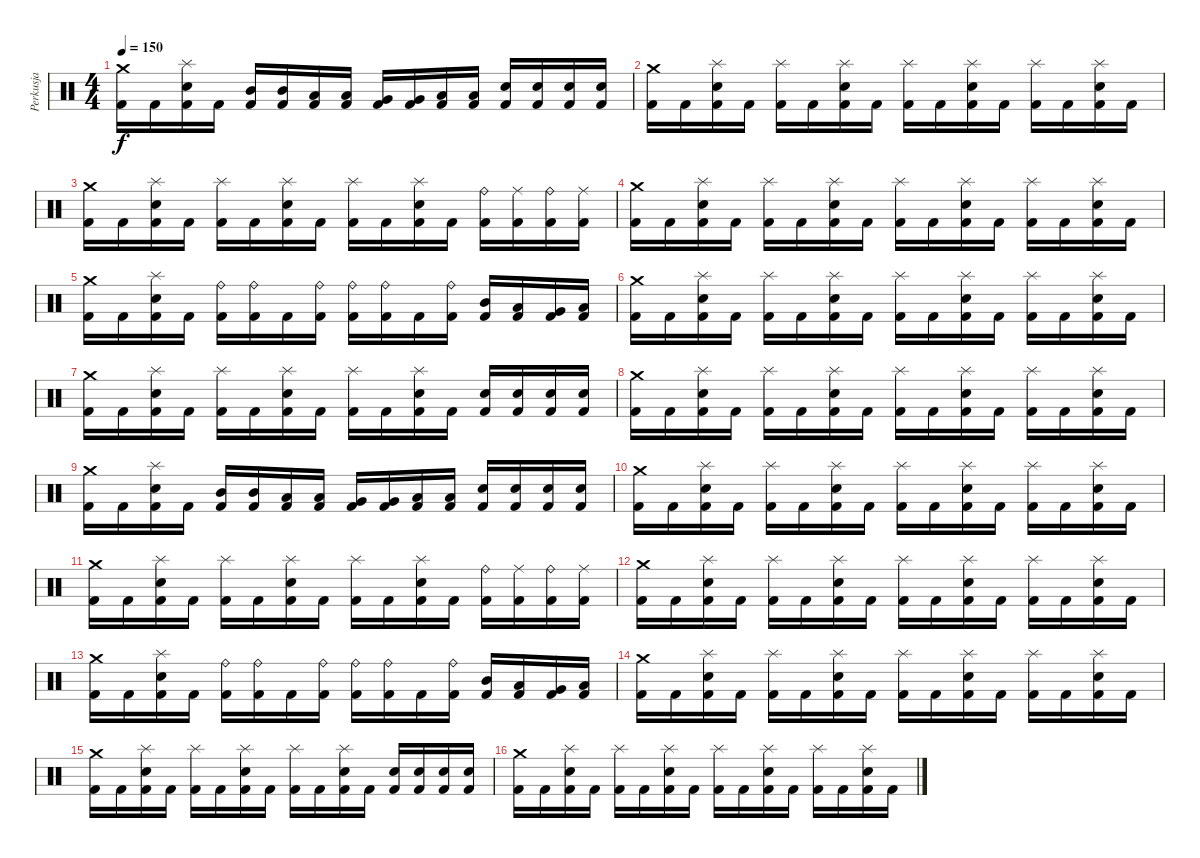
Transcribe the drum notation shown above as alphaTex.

\track ("Perkusja" "Perkusja") {instrument percussion}
\staff {score}
\articulation defaults
\ts (4 4)
\tempo 150
\clef neutral
\ks c
("Crash medium (hit)" "Kick (hit) 2").16{dy f} "Kick (hit) 2".16 ("Splash (hit)" "Electric Snare (hit)" "Kick (hit) 2").16 "Kick (hit) 2".16 ("Mid Tom (hit)" "Kick (hit) 2").16 ("Mid Tom (hit)" "Kick (hit) 2").16 ("Low Tom (hit)" "Kick (hit) 2").16 ("Low Tom (hit)" "Kick (hit) 2").16 ("Very Low Tom (hit)" "Kick (hit) 2").16 ("Very Low Tom (hit)" "Kick (hit) 2").16 ("Low Floor Tom (hit)" "Kick (hit) 2").16 ("Low Floor Tom (hit)" "Kick (hit) 2").16 ("Electric Snare (hit)" "Kick (hit) 2").16 ("Electric Snare (hit)" "Kick (hit) 2").16 ("Electric Snare (hit)" "Kick (hit) 2").16 ("Electric Snare (hit)" "Kick (hit) 2").16 |
("Crash medium (hit)" "Kick (hit) 2").16 "Kick (hit) 2".16 ("Splash (hit)" "Electric Snare (hit)" "Kick (hit) 2").16 "Kick (hit) 2".16 ("Splash (hit)" "Kick (hit) 2").16 "Kick (hit) 2".16 ("Splash (hit)" "Electric Snare (hit)" "Kick (hit) 2").16 "Kick (hit) 2".16 ("Splash (hit)" "Kick (hit) 2").16 "Kick (hit) 2".16 ("Splash (hit)" "Electric Snare (hit)" "Kick (hit) 2").16 "Kick (hit) 2".16 ("Splash (hit)" "Kick (hit) 2").16 "Kick (hit) 2".16 ("Splash (hit)" "Electric Snare (hit)" "Kick (hit) 2").16 "Kick (hit) 2".16 |
("Crash medium (hit)" "Kick (hit) 2").16 "Kick (hit) 2".16 ("Splash (hit)" "Electric Snare (hit)" "Kick (hit) 2").16 "Kick (hit) 2".16 ("Splash (hit)" "Kick (hit) 2").16 "Kick (hit) 2".16 ("Splash (hit)" "Electric Snare (hit)" "Kick (hit) 2").16 "Kick (hit) 2".16 ("Splash (hit)" "Kick (hit) 2").16 "Kick (hit) 2".16 ("Splash (hit)" "Electric Snare (hit)" "Kick (hit) 2").16 "Kick (hit) 2".16 ("Ride (bell)" "Kick (hit) 2").16 ("Ride (middle)" "Kick (hit) 2").16 ("Ride (bell)" "Kick (hit) 2").16 ("Ride (middle)" "Kick (hit) 2").16 |
("Crash medium (hit)" "Kick (hit) 2").16 "Kick (hit) 2".16 ("Splash (hit)" "Electric Snare (hit)" "Kick (hit) 2").16 "Kick (hit) 2".16 ("Splash (hit)" "Kick (hit) 2").16 "Kick (hit) 2".16 ("Splash (hit)" "Electric Snare (hit)" "Kick (hit) 2").16 "Kick (hit) 2".16 ("Splash (hit)" "Kick (hit) 2").16 "Kick (hit) 2".16 ("Splash (hit)" "Electric Snare (hit)" "Kick (hit) 2").16 "Kick (hit) 2".16 ("Splash (hit)" "Kick (hit) 2").16 "Kick (hit) 2".16 ("Splash (hit)" "Electric Snare (hit)" "Kick (hit) 2").16 "Kick (hit) 2".16 |
("Crash medium (hit)" "Kick (hit) 2").16 "Kick (hit) 2".16 ("Splash (hit)" "Electric Snare (hit)" "Kick (hit) 2").16 "Kick (hit) 2".16 ("Ride (bell)" "Kick (hit) 2").16 ("Ride (bell)" "Kick (hit) 2").16 "Kick (hit) 2".16 ("Ride (bell)" "Kick (hit) 2").16 ("Ride (bell)" "Kick (hit) 2").16 ("Ride (bell)" "Kick (hit) 2").16 "Kick (hit) 2".16 ("Ride (bell)" "Kick (hit) 2").16 ("Mid Tom (hit)" "Kick (hit) 2").16 ("Low Tom (hit)" "Kick (hit) 2").16 ("Very Low Tom (hit)" "Kick (hit) 2").16 ("Low Floor Tom (hit)" "Kick (hit) 2").16 |
("Crash medium (hit)" "Kick (hit) 2").16 "Kick (hit) 2".16 ("Splash (hit)" "Electric Snare (hit)" "Kick (hit) 2").16 "Kick (hit) 2".16 ("Splash (hit)" "Kick (hit) 2").16 "Kick (hit) 2".16 ("Splash (hit)" "Electric Snare (hit)" "Kick (hit) 2").16 "Kick (hit) 2".16 ("Splash (hit)" "Kick (hit) 2").16 "Kick (hit) 2".16 ("Splash (hit)" "Electric Snare (hit)" "Kick (hit) 2").16 "Kick (hit) 2".16 ("Splash (hit)" "Kick (hit) 2").16 "Kick (hit) 2".16 ("Splash (hit)" "Electric Snare (hit)" "Kick (hit) 2").16 "Kick (hit) 2".16 |
("Crash medium (hit)" "Kick (hit) 2").16 "Kick (hit) 2".16 ("Splash (hit)" "Electric Snare (hit)" "Kick (hit) 2").16 "Kick (hit) 2".16 ("Splash (hit)" "Kick (hit) 2").16 "Kick (hit) 2".16 ("Splash (hit)" "Electric Snare (hit)" "Kick (hit) 2").16 "Kick (hit) 2".16 ("Splash (hit)" "Kick (hit) 2").16 "Kick (hit) 2".16 ("Splash (hit)" "Electric Snare (hit)" "Kick (hit) 2").16 "Kick (hit) 2".16 ("Electric Snare (hit)" "Kick (hit) 2").16 ("Electric Snare (hit)" "Kick (hit) 2").16 ("Electric Snare (hit)" "Kick (hit) 2").16 ("Electric Snare (hit)" "Kick (hit) 2").16 |
("Crash medium (hit)" "Kick (hit) 2").16 "Kick (hit) 2".16 ("Splash (hit)" "Electric Snare (hit)" "Kick (hit) 2").16 "Kick (hit) 2".16 ("Splash (hit)" "Kick (hit) 2").16 "Kick (hit) 2".16 ("Splash (hit)" "Electric Snare (hit)" "Kick (hit) 2").16 "Kick (hit) 2".16 ("Splash (hit)" "Kick (hit) 2").16 "Kick (hit) 2".16 ("Splash (hit)" "Electric Snare (hit)" "Kick (hit) 2").16 "Kick (hit) 2".16 ("Splash (hit)" "Kick (hit) 2").16 "Kick (hit) 2".16 ("Splash (hit)" "Electric Snare (hit)" "Kick (hit) 2").16 "Kick (hit) 2".16 |
("Crash medium (hit)" "Kick (hit) 2").16 "Kick (hit) 2".16 ("Splash (hit)" "Electric Snare (hit)" "Kick (hit) 2").16 "Kick (hit) 2".16 ("Mid Tom (hit)" "Kick (hit) 2").16 ("Mid Tom (hit)" "Kick (hit) 2").16 ("Low Tom (hit)" "Kick (hit) 2").16 ("Low Tom (hit)" "Kick (hit) 2").16 ("Very Low Tom (hit)" "Kick (hit) 2").16 ("Very Low Tom (hit)" "Kick (hit) 2").16 ("Low Floor Tom (hit)" "Kick (hit) 2").16 ("Low Floor Tom (hit)" "Kick (hit) 2").16 ("Electric Snare (hit)" "Kick (hit) 2").16 ("Electric Snare (hit)" "Kick (hit) 2").16 ("Electric Snare (hit)" "Kick (hit) 2").16 ("Electric Snare (hit)" "Kick (hit) 2").16 |
("Crash medium (hit)" "Kick (hit) 2").16 "Kick (hit) 2".16 ("Splash (hit)" "Electric Snare (hit)" "Kick (hit) 2").16 "Kick (hit) 2".16 ("Splash (hit)" "Kick (hit) 2").16 "Kick (hit) 2".16 ("Splash (hit)" "Electric Snare (hit)" "Kick (hit) 2").16 "Kick (hit) 2".16 ("Splash (hit)" "Kick (hit) 2").16 "Kick (hit) 2".16 ("Splash (hit)" "Electric Snare (hit)" "Kick (hit) 2").16 "Kick (hit) 2".16 ("Splash (hit)" "Kick (hit) 2").16 "Kick (hit) 2".16 ("Splash (hit)" "Electric Snare (hit)" "Kick (hit) 2").16 "Kick (hit) 2".16 |
("Crash medium (hit)" "Kick (hit) 2").16 "Kick (hit) 2".16 ("Splash (hit)" "Electric Snare (hit)" "Kick (hit) 2").16 "Kick (hit) 2".16 ("Splash (hit)" "Kick (hit) 2").16 "Kick (hit) 2".16 ("Splash (hit)" "Electric Snare (hit)" "Kick (hit) 2").16 "Kick (hit) 2".16 ("Splash (hit)" "Kick (hit) 2").16 "Kick (hit) 2".16 ("Splash (hit)" "Electric Snare (hit)" "Kick (hit) 2").16 "Kick (hit) 2".16 ("Ride (bell)" "Kick (hit) 2").16 ("Ride (middle)" "Kick (hit) 2").16 ("Ride (bell)" "Kick (hit) 2").16 ("Ride (middle)" "Kick (hit) 2").16 |
("Crash medium (hit)" "Kick (hit) 2").16 "Kick (hit) 2".16 ("Splash (hit)" "Electric Snare (hit)" "Kick (hit) 2").16 "Kick (hit) 2".16 ("Splash (hit)" "Kick (hit) 2").16 "Kick (hit) 2".16 ("Splash (hit)" "Electric Snare (hit)" "Kick (hit) 2").16 "Kick (hit) 2".16 ("Splash (hit)" "Kick (hit) 2").16 "Kick (hit) 2".16 ("Splash (hit)" "Electric Snare (hit)" "Kick (hit) 2").16 "Kick (hit) 2".16 ("Splash (hit)" "Kick (hit) 2").16 "Kick (hit) 2".16 ("Splash (hit)" "Electric Snare (hit)" "Kick (hit) 2").16 "Kick (hit) 2".16 |
("Crash medium (hit)" "Kick (hit) 2").16 "Kick (hit) 2".16 ("Splash (hit)" "Electric Snare (hit)" "Kick (hit) 2").16 "Kick (hit) 2".16 ("Ride (bell)" "Kick (hit) 2").16 ("Ride (bell)" "Kick (hit) 2").16 "Kick (hit) 2".16 ("Ride (bell)" "Kick (hit) 2").16 ("Ride (bell)" "Kick (hit) 2").16 ("Ride (bell)" "Kick (hit) 2").16 "Kick (hit) 2".16 ("Ride (bell)" "Kick (hit) 2").16 ("Mid Tom (hit)" "Kick (hit) 2").16 ("Low Tom (hit)" "Kick (hit) 2").16 ("Very Low Tom (hit)" "Kick (hit) 2").16 ("Low Floor Tom (hit)" "Kick (hit) 2").16 |
("Crash medium (hit)" "Kick (hit) 2").16 "Kick (hit) 2".16 ("Splash (hit)" "Electric Snare (hit)" "Kick (hit) 2").16 "Kick (hit) 2".16 ("Splash (hit)" "Kick (hit) 2").16 "Kick (hit) 2".16 ("Splash (hit)" "Electric Snare (hit)" "Kick (hit) 2").16 "Kick (hit) 2".16 ("Splash (hit)" "Kick (hit) 2").16 "Kick (hit) 2".16 ("Splash (hit)" "Electric Snare (hit)" "Kick (hit) 2").16 "Kick (hit) 2".16 ("Splash (hit)" "Kick (hit) 2").16 "Kick (hit) 2".16 ("Splash (hit)" "Electric Snare (hit)" "Kick (hit) 2").16 "Kick (hit) 2".16 |
("Crash medium (hit)" "Kick (hit) 2").16 "Kick (hit) 2".16 ("Splash (hit)" "Electric Snare (hit)" "Kick (hit) 2").16 "Kick (hit) 2".16 ("Splash (hit)" "Kick (hit) 2").16 "Kick (hit) 2".16 ("Splash (hit)" "Electric Snare (hit)" "Kick (hit) 2").16 "Kick (hit) 2".16 ("Splash (hit)" "Kick (hit) 2").16 "Kick (hit) 2".16 ("Splash (hit)" "Electric Snare (hit)" "Kick (hit) 2").16 "Kick (hit) 2".16 ("Electric Snare (hit)" "Kick (hit) 2").16 ("Electric Snare (hit)" "Kick (hit) 2").16 ("Electric Snare (hit)" "Kick (hit) 2").16 ("Electric Snare (hit)" "Kick (hit) 2").16 |
("Crash medium (hit)" "Kick (hit) 2").16 "Kick (hit) 2".16 ("Splash (hit)" "Electric Snare (hit)" "Kick (hit) 2").16 "Kick (hit) 2".16 ("Splash (hit)" "Kick (hit) 2").16 "Kick (hit) 2".16 ("Splash (hit)" "Electric Snare (hit)" "Kick (hit) 2").16 "Kick (hit) 2".16 ("Splash (hit)" "Kick (hit) 2").16 "Kick (hit) 2".16 ("Splash (hit)" "Electric Snare (hit)" "Kick (hit) 2").16 "Kick (hit) 2".16 ("Splash (hit)" "Kick (hit) 2").16 "Kick (hit) 2".16 ("Splash (hit)" "Electric Snare (hit)" "Kick (hit) 2").16 "Kick (hit) 2".16
